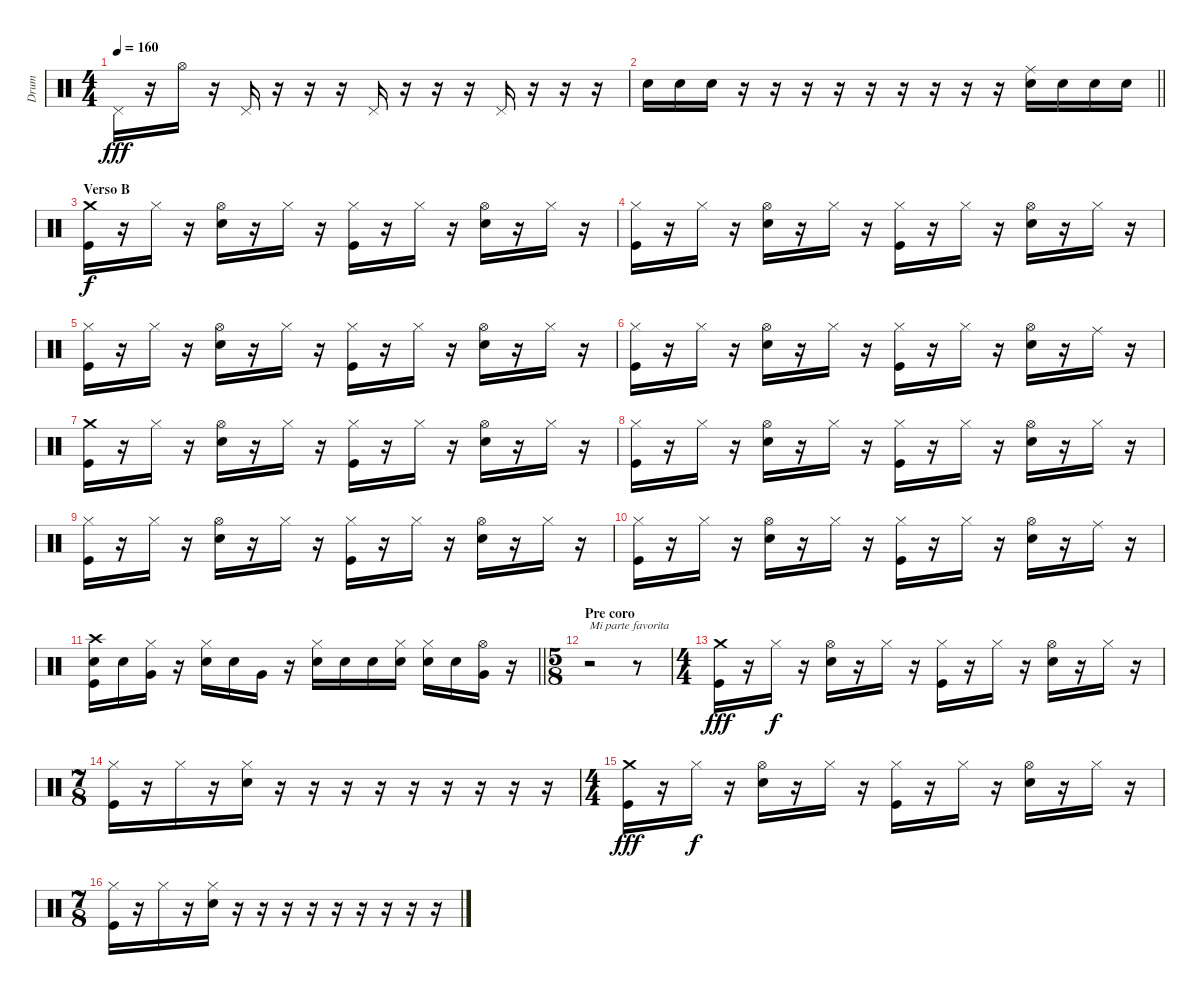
\track ("Drum" "Drum") {instrument percussion}
\staff {score}
\articulation defaults
\ts (4 4)
\tempo 160
\clef neutral
\ks c "Pedal Hi-Hat (hit)".16{dy fff}
r.16 "Hi-Hat (open)".16 r.16 "Pedal Hi-Hat (hit)".16 r.16 r.16 r.16 "Pedal Hi-Hat (hit)".16 r.16 r.16 r.16 "Pedal Hi-Hat (hit)".16 r.16 r.16 r.16 |
\barLineRight lightlight "Electric Snare (hit)".16 "Electric Snare (hit)".16 "Electric Snare (hit)".16
r.16 r.16 r.16 r.16 r.16 r.16 r.16 r.16 r.16 ("Ride (middle)" "Electric Snare (hit)").16 "Electric Snare (hit)".16 "Electric Snare (hit)".16 "Electric Snare (hit)".16 |
\section ("" "Verso B")
("Crash medium (hit)" "Kick (hit)").16{dy f} r.16 "Hi-Hat (closed)".16 r.16 ("Hi-Hat (open)" "Electric Snare (hit)").16 r.16 "Hi-Hat (closed)".16 r.16 ("Hi-Hat (closed)" "Kick (hit)").16 r.16 "Hi-Hat (closed)".16 r.16 ("Hi-Hat (open)" "Electric Snare (hit)").16 r.16 "Hi-Hat (closed)".16 r.16 |
("Hi-Hat (closed)" "Kick (hit)").16 r.16 "Hi-Hat (closed)".16 r.16 ("Hi-Hat (open)" "Electric Snare (hit)").16 r.16 "Hi-Hat (closed)".16 r.16 ("Hi-Hat (closed)" "Kick (hit)").16 r.16 "Hi-Hat (closed)".16 r.16 ("Hi-Hat (open)" "Electric Snare (hit)").16 r.16 "Hi-Hat (closed)".16 r.16 |
("Hi-Hat (closed)" "Kick (hit)").16 r.16 "Hi-Hat (closed)".16 r.16 ("Hi-Hat (open)" "Electric Snare (hit)").16 r.16 "Hi-Hat (closed)".16 r.16 ("Hi-Hat (closed)" "Kick (hit)").16 r.16 "Hi-Hat (closed)".16 r.16 ("Hi-Hat (open)" "Electric Snare (hit)").16 r.16 "Hi-Hat (closed)".16 r.16 |
("Hi-Hat (closed)" "Kick (hit)").16 r.16 "Hi-Hat (closed)".16 r.16 ("Hi-Hat (open)" "Electric Snare (hit)").16 r.16 "Hi-Hat (closed)".16 r.16 ("Hi-Hat (closed)" "Kick (hit)").16 r.16 "Hi-Hat (closed)".16 r.16 ("Hi-Hat (open)" "Electric Snare (hit)").16 r.16 "Ride (middle)".16 r.16 |
("Crash medium (hit)" "Kick (hit)").16 r.16 "Hi-Hat (closed)".16 r.16 ("Hi-Hat (open)" "Electric Snare (hit)").16 r.16 "Hi-Hat (closed)".16 r.16 ("Hi-Hat (closed)" "Kick (hit)").16 r.16 "Hi-Hat (closed)".16 r.16 ("Hi-Hat (open)" "Electric Snare (hit)").16 r.16 "Hi-Hat (closed)".16 r.16 |
("Hi-Hat (closed)" "Kick (hit)").16 r.16 "Hi-Hat (closed)".16 r.16 ("Hi-Hat (open)" "Electric Snare (hit)").16 r.16 "Hi-Hat (closed)".16 r.16 ("Hi-Hat (closed)" "Kick (hit)").16 r.16 "Hi-Hat (closed)".16 r.16 ("Hi-Hat (open)" "Electric Snare (hit)").16 r.16 "Hi-Hat (closed)".16 r.16 |
("Hi-Hat (closed)" "Kick (hit)").16 r.16 "Hi-Hat (closed)".16 r.16 ("Hi-Hat (open)" "Electric Snare (hit)").16 r.16 "Hi-Hat (closed)".16 r.16 ("Hi-Hat (closed)" "Kick (hit)").16 r.16 "Hi-Hat (closed)".16 r.16 ("Hi-Hat (open)" "Electric Snare (hit)").16 r.16 "Hi-Hat (closed)".16 r.16 |
("Hi-Hat (closed)" "Kick (hit)").16 r.16 "Hi-Hat (closed)".16 r.16 ("Hi-Hat (open)" "Electric Snare (hit)").16 r.16 "Hi-Hat (closed)".16 r.16 ("Hi-Hat (closed)" "Kick (hit)").16 r.16 "Hi-Hat (closed)".16 r.16 ("Hi-Hat (open)" "Electric Snare (hit)").16 r.16 "Ride (middle)".16 r.16 |
\barLineRight lightlight
("Crash high (hit)" "Electric Snare (hit)" "Kick (hit)").16 "Electric Snare (hit)".16 ("Hi-Hat (closed)" "Very Low Tom (hit)").16 r.16 ("Hi-Hat (closed)" "Electric Snare (hit)").16 "Electric Snare (hit)".16 "Very Low Tom (hit)".16 r.16 ("Hi-Hat (closed)" "Electric Snare (hit)").16 "Electric Snare (hit)".16 "Electric Snare (hit)".16 ("Hi-Hat (closed)" "Electric Snare (hit)").16 ("Hi-Hat (closed)" "Electric Snare (hit)").16 "Electric Snare (hit)".16 ("Hi-Hat (open)" "Very Low Tom (hit)").16 r.16 |
\ts (5 8)
\section ("" "Pre coro")
r.2{txt "Mi parte favorita"} r.8 |
\ts (4 4)
("Crash medium (hit)" "Kick (hit)").16{dy fff} r.16 "Hi-Hat (closed)".16{dy f} r.16 ("Hi-Hat (open)" "Electric Snare (hit)").16 r.16 "Hi-Hat (closed)".16 r.16 ("Hi-Hat (closed)" "Kick (hit)").16 r.16 "Hi-Hat (closed)".16 r.16 ("Hi-Hat (open)" "Electric Snare (hit)").16 r.16 "Hi-Hat (closed)".16 r.16 |
\ts (7 8)
("Hi-Hat (closed)" "Kick (hit)").16 r.16 "Hi-Hat (closed)".16 r.16 ("Hi-Hat (closed)" "Electric Snare (hit)").16 r.16 r.16 r.16 r.16 r.16 r.16 r.16 r.16 r.16 |
\ts (4 4)
("Crash medium (hit)" "Kick (hit)").16{dy fff} r.16 "Hi-Hat (closed)".16{dy f} r.16 ("Hi-Hat (open)" "Electric Snare (hit)").16 r.16 "Hi-Hat (closed)".16 r.16 ("Hi-Hat (closed)" "Kick (hit)").16 r.16 "Hi-Hat (closed)".16 r.16 ("Hi-Hat (open)" "Electric Snare (hit)").16 r.16 "Hi-Hat (closed)".16 r.16 |
\ts (7 8)
("Hi-Hat (closed)" "Kick (hit)").16 r.16 "Hi-Hat (closed)".16 r.16 ("Hi-Hat (closed)" "Electric Snare (hit)").16 r.16 r.16 r.16 r.16 r.16 r.16 r.16 r.16 r.16
